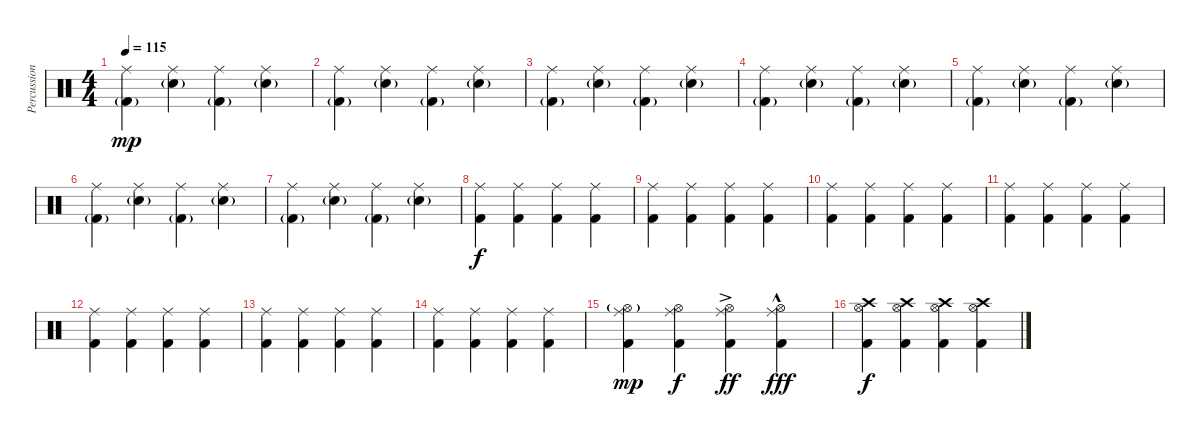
\track ("Percussion" "Percussion") {instrument percussion}
\staff {score}
\articulation defaults
\ts (4 4)
\tempo 115
\clef neutral
\ks c
("Ride (middle)" "Kick (hit) 2"{g}).4{dy mp} ("Ride (middle)" "Electric Snare (hit)"{g}).4 ("Ride (middle)" "Kick (hit) 2"{g}).4 ("Ride (middle)" "Electric Snare (hit)"{g}).4 |
("Ride (middle)" "Kick (hit) 2"{g}).4 ("Ride (middle)" "Electric Snare (hit)"{g}).4 ("Ride (middle)" "Kick (hit) 2"{g}).4 ("Ride (middle)" "Electric Snare (hit)"{g}).4 |
("Ride (middle)" "Kick (hit) 2"{g}).4 ("Ride (middle)" "Electric Snare (hit)"{g}).4 ("Ride (middle)" "Kick (hit) 2"{g}).4 ("Ride (middle)" "Electric Snare (hit)"{g}).4 |
("Ride (middle)" "Kick (hit) 2"{g}).4 ("Ride (middle)" "Electric Snare (hit)"{g}).4 ("Ride (middle)" "Kick (hit) 2"{g}).4 ("Ride (middle)" "Electric Snare (hit)"{g}).4 |
("Ride (middle)" "Kick (hit) 2"{g}).4 ("Ride (middle)" "Electric Snare (hit)"{g}).4 ("Ride (middle)" "Kick (hit) 2"{g}).4 ("Ride (middle)" "Electric Snare (hit)"{g}).4 |
("Ride (middle)" "Kick (hit) 2"{g}).4 ("Ride (middle)" "Electric Snare (hit)"{g}).4 ("Ride (middle)" "Kick (hit) 2"{g}).4 ("Ride (middle)" "Electric Snare (hit)"{g}).4 |
("Ride (middle)" "Kick (hit) 2"{g}).4 ("Ride (middle)" "Electric Snare (hit)"{g}).4 ("Ride (middle)" "Kick (hit) 2"{g}).4 ("Ride (middle)" "Electric Snare (hit)"{g}).4 |
("Ride (middle)" "Kick (hit) 2").4{dy f} ("Ride (middle)" "Kick (hit) 2").4 ("Ride (middle)" "Kick (hit) 2").4 ("Ride (middle)" "Kick (hit) 2").4 |
("Ride (middle)" "Kick (hit) 2").4 ("Ride (middle)" "Kick (hit) 2").4 ("Ride (middle)" "Kick (hit) 2").4 ("Ride (middle)" "Kick (hit) 2").4 |
("Ride (middle)" "Kick (hit) 2").4 ("Ride (middle)" "Kick (hit) 2").4 ("Ride (middle)" "Kick (hit) 2").4 ("Ride (middle)" "Kick (hit) 2").4 |
("Ride (middle)" "Kick (hit) 2").4 ("Ride (middle)" "Kick (hit) 2").4 ("Ride (middle)" "Kick (hit) 2").4 ("Ride (middle)" "Kick (hit) 2").4 |
("Ride (middle)" "Kick (hit) 2").4 ("Ride (middle)" "Kick (hit) 2").4 ("Ride (middle)" "Kick (hit) 2").4 ("Ride (middle)" "Kick (hit) 2").4 |
("Ride (middle)" "Kick (hit) 2").4 ("Ride (middle)" "Kick (hit) 2").4 ("Ride (middle)" "Kick (hit) 2").4 ("Ride (middle)" "Kick (hit) 2").4 |
("Ride (middle)" "Kick (hit) 2").4 ("Ride (middle)" "Kick (hit) 2").4 ("Ride (middle)" "Kick (hit) 2").4 ("Ride (middle)" "Kick (hit) 2").4 |
("Hi-Hat (open)"{g} "Ride (middle)" "Kick (hit) 2").4{dy mp} ("Hi-Hat (open)" "Ride (middle)" "Kick (hit) 2").4{dy f} ("Hi-Hat (open)"{ac} "Ride (middle)" "Kick (hit) 2").4{dy ff} ("Hi-Hat (open)"{hac} "Ride (middle)" "Kick (hit) 2").4{dy fff} |
("Crash high (hit)" "Hi-Hat (open)" "Kick (hit) 2").4{dy f} ("Crash high (hit)" "Hi-Hat (open)" "Kick (hit) 2").4 ("Crash high (hit)" "Hi-Hat (open)" "Kick (hit) 2").4 ("Crash high (hit)" "Hi-Hat (open)" "Kick (hit) 2").4
